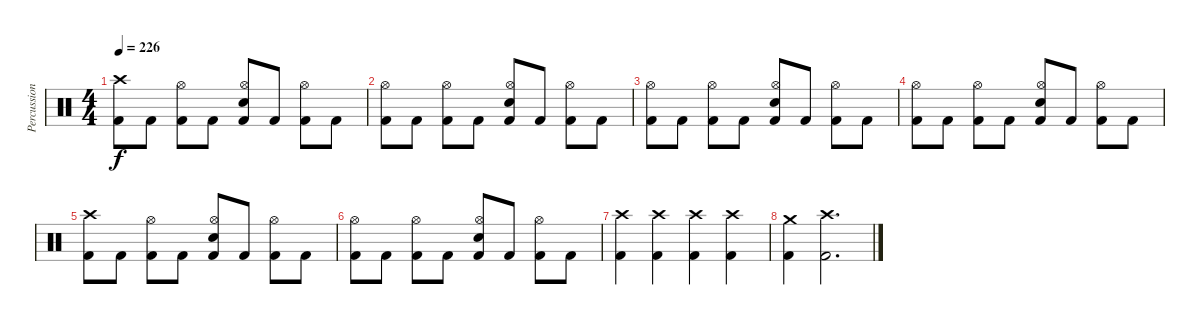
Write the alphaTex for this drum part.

\track ("Percussion" "Percussion") {instrument percussion}
\staff {score}
\articulation defaults
\ts (4 4)
\tempo 226
\clef neutral
\ks c
("Crash high (hit)" "Kick (hit) 2").8{dy f} "Kick (hit) 2".8 ("Hi-Hat (open)" "Kick (hit) 2").8 "Kick (hit) 2".8 ("Hi-Hat (open)" "Snare (hit) 2" "Kick (hit) 2").8 "Kick (hit) 2".8 ("Hi-Hat (open)" "Kick (hit) 2").8 "Kick (hit) 2".8 |
("Hi-Hat (open)" "Kick (hit) 2").8 "Kick (hit) 2".8 ("Hi-Hat (open)" "Kick (hit) 2").8 "Kick (hit) 2".8 ("Hi-Hat (open)" "Snare (hit) 2" "Kick (hit) 2").8 "Kick (hit) 2".8 ("Hi-Hat (open)" "Kick (hit) 2").8 "Kick (hit) 2".8 |
("Hi-Hat (open)" "Kick (hit) 2").8 "Kick (hit) 2".8 ("Hi-Hat (open)" "Kick (hit) 2").8 "Kick (hit) 2".8 ("Hi-Hat (open)" "Snare (hit) 2" "Kick (hit) 2").8 "Kick (hit) 2".8 ("Hi-Hat (open)" "Kick (hit) 2").8 "Kick (hit) 2".8 |
("Hi-Hat (open)" "Kick (hit) 2").8 "Kick (hit) 2".8 ("Hi-Hat (open)" "Kick (hit) 2").8 "Kick (hit) 2".8 ("Hi-Hat (open)" "Snare (hit) 2" "Kick (hit) 2").8 "Kick (hit) 2".8 ("Hi-Hat (open)" "Kick (hit) 2").8 "Kick (hit) 2".8 |
("Crash high (hit)" "Kick (hit) 2").8 "Kick (hit) 2".8 ("Hi-Hat (open)" "Kick (hit) 2").8 "Kick (hit) 2".8 ("Hi-Hat (open)" "Snare (hit) 2" "Kick (hit) 2").8 "Kick (hit) 2".8 ("Hi-Hat (open)" "Kick (hit) 2").8 "Kick (hit) 2".8 |
("Hi-Hat (open)" "Kick (hit) 2").8 "Kick (hit) 2".8 ("Hi-Hat (open)" "Kick (hit) 2").8 "Kick (hit) 2".8 ("Hi-Hat (open)" "Snare (hit) 2" "Kick (hit) 2").8 "Kick (hit) 2".8 ("Hi-Hat (open)" "Kick (hit) 2").8 "Kick (hit) 2".8 |
("Crash high (hit)" "Kick (hit) 2").4 ("Crash high (hit)" "Kick (hit) 2").4 ("Crash high (hit)" "Kick (hit) 2").4 ("Crash high (hit)" "Kick (hit) 2").4 |
("Crash medium (hit)" "Kick (hit) 2").4 ("Crash high (hit)" "Kick (hit) 2").2{d}
